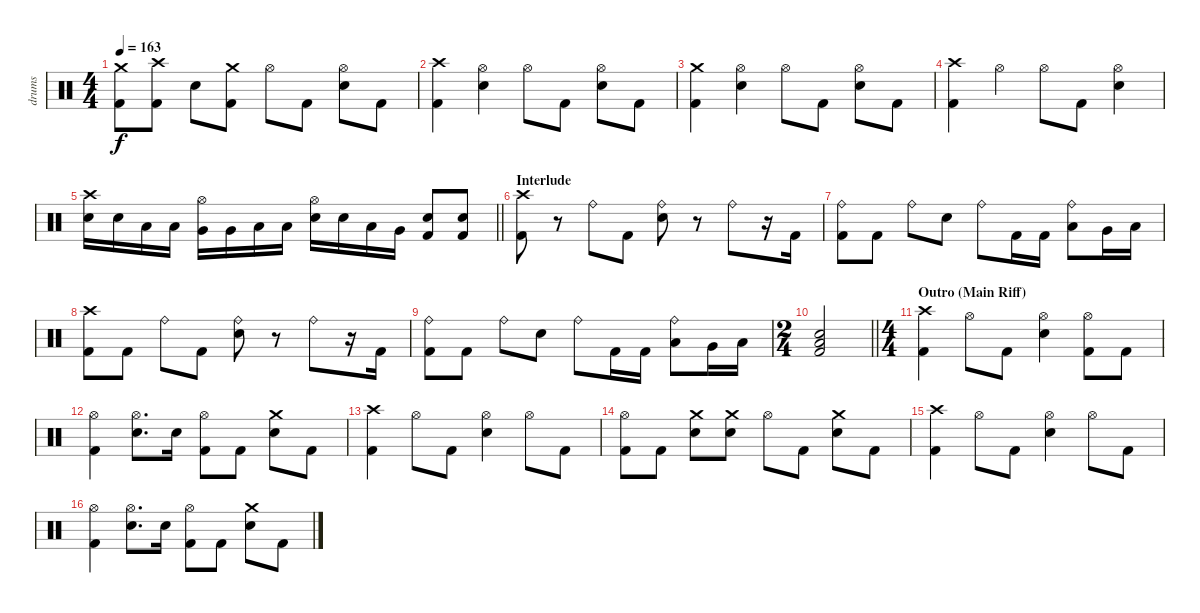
\track ("drums" "drums") {instrument percussion}
\staff {score}
\articulation defaults
\ts (4 4)
\tempo 163
\clef neutral
\ks c
("Crash medium (hit)" "Kick (hit) 2").8{dy f} ("Crash high (hit)" "Kick (hit) 2").8 "Snare (hit) 2".8 ("Crash medium (hit)" "Kick (hit) 2").8 "Hi-Hat (open)".8 "Kick (hit) 2".8 ("Hi-Hat (open)" "Snare (hit) 2").8 "Kick (hit) 2".8 |
("Crash high (hit)" "Kick (hit) 2").4 ("Hi-Hat (open)" "Snare (hit) 2").4 "Hi-Hat (open)".8 "Kick (hit) 2".8 ("Hi-Hat (open)" "Snare (hit) 2").8 "Kick (hit) 2".8 |
("Crash medium (hit)" "Kick (hit) 2").4 ("Hi-Hat (open)" "Snare (hit) 2").4 "Hi-Hat (open)".8 "Kick (hit) 2".8 ("Hi-Hat (open)" "Snare (hit) 2").8 "Kick (hit) 2".8 |
("Crash high (hit)" "Kick (hit) 2").4 "Hi-Hat (open)".4 "Hi-Hat (open)".8 "Kick (hit) 2".8 ("Hi-Hat (open)" "Snare (hit) 2").4 |
\barLineRight lightlight
("Crash high (hit)" "Snare (hit) 2").16 "Snare (hit) 2".16 "Low Tom (hit)".16 "Low Tom (hit)".16 ("Hi-Hat (open)" "Very Low Tom (hit)").16 "Very Low Tom (hit)".16 "Low Floor Tom (hit)".16 "Low Floor Tom (hit)".16 ("Hi-Hat (open)" "Snare (hit) 2").16 "Snare (hit) 2".16 "Low Tom (hit)".16 "Very Low Tom (hit)".16 ("Snare (hit) 2" "Kick (hit) 2").8 ("Snare (hit) 2" "Kick (hit) 2").8 |
\section ("" "Interlude")
("Crash high (hit)" "Kick (hit) 2").8 r.8 "Ride (bell)".8 "Kick (hit) 2".8 ("Ride (bell)" "Snare (hit) 2").8 r.8 "Ride (bell)".8 r.16 "Kick (hit) 2".16 |
("Ride (bell)" "Kick (hit) 2").8 "Kick (hit) 2".8 "Ride (bell)".8 "Snare (hit) 2".8 "Ride (bell)".8 "Kick (hit) 2".16 "Kick (hit) 2".16 ("Ride (bell)" "Low Tom (hit)").8 "Very Low Tom (hit)".16 "Low Floor Tom (hit)".16 |
("Crash high (hit)" "Kick (hit) 2").8 "Kick (hit) 2".8 "Ride (bell)".8 "Kick (hit) 2".8 ("Ride (bell)" "Snare (hit) 2").8 r.8 "Ride (bell)".8 r.16 "Kick (hit) 2".16 |
("Ride (bell)" "Kick (hit) 2").8 "Kick (hit) 2".8 "Ride (bell)".8 "Snare (hit) 2".8 "Ride (bell)".8 "Kick (hit) 2".16 "Kick (hit) 2".16 ("Ride (bell)" "Low Tom (hit)").8 "Very Low Tom (hit)".16 "Low Floor Tom (hit)".16 |
\ts (2 4)
\barLineRight lightlight
("Low Floor Tom (hit)" "Snare (hit) 2" "Kick (hit) 2").2 |
\ts (4 4)
\section ("" "Outro (Main Riff)")
("Crash high (hit)" "Kick (hit) 2").4 "Hi-Hat (open)".8 "Kick (hit) 2".8 ("Hi-Hat (open)" "Snare (hit) 2").4 ("Hi-Hat (open)" "Kick (hit) 2").8 "Kick (hit) 2".8 |
("Hi-Hat (open)" "Kick (hit) 2").4 ("Hi-Hat (open)" "Snare (hit) 2").8{d} "Snare (hit) 2".16 ("Hi-Hat (open)" "Kick (hit) 2").8 "Kick (hit) 2".8 ("Crash medium (hit)" "Snare (hit) 2").8 "Kick (hit) 2".8 |
("Crash high (hit)" "Kick (hit) 2").4 "Hi-Hat (open)".8 "Kick (hit) 2".8 ("Hi-Hat (open)" "Snare (hit) 2").4 "Hi-Hat (open)".8 "Kick (hit) 2".8 |
("Hi-Hat (open)" "Kick (hit) 2").8 "Kick (hit) 2".8 ("Crash medium (hit)" "Snare (hit) 2").8 ("Crash medium (hit)" "Snare (hit) 2").8 "Hi-Hat (open)".8 "Kick (hit) 2".8 ("Crash medium (hit)" "Snare (hit) 2").8 "Kick (hit) 2".8 |
("Crash high (hit)" "Kick (hit) 2").4 "Hi-Hat (open)".8 "Kick (hit) 2".8 ("Hi-Hat (open)" "Snare (hit) 2").4 "Hi-Hat (open)".8 "Kick (hit) 2".8 |
("Hi-Hat (open)" "Kick (hit) 2").4 ("Hi-Hat (open)" "Snare (hit) 2").8{d} "Snare (hit) 2".16 ("Hi-Hat (open)" "Kick (hit) 2").8 "Kick (hit) 2".8 ("Crash medium (hit)" "Snare (hit) 2").8 "Kick (hit) 2".8
